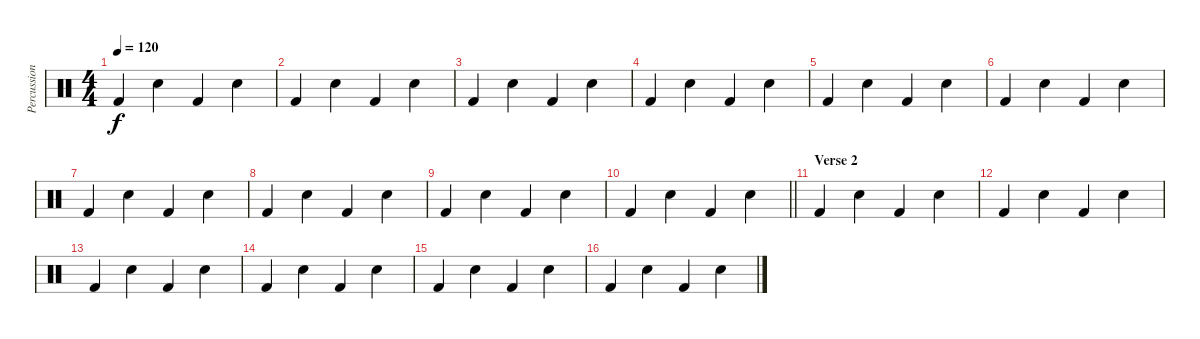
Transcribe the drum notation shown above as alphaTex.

\track ("Percussion" "Percussion") {instrument percussion}
\staff {score}
\articulation defaults
\ts (4 4)
\tempo 120
\clef neutral
\ks c "Kick (hit) 2".4{dy f} "Electric Snare (hit)".4 "Kick (hit) 2".4 "Electric Snare (hit)".4
|
"Kick (hit) 2".4 "Electric Snare (hit)".4 "Kick (hit) 2".4 "Electric Snare (hit)".4 |
"Kick (hit) 2".4 "Electric Snare (hit)".4 "Kick (hit) 2".4 "Electric Snare (hit)".4 |
"Kick (hit) 2".4 "Electric Snare (hit)".4 "Kick (hit) 2".4 "Electric Snare (hit)".4 |
"Kick (hit) 2".4 "Electric Snare (hit)".4 "Kick (hit) 2".4 "Electric Snare (hit)".4 |
"Kick (hit) 2".4 "Electric Snare (hit)".4 "Kick (hit) 2".4 "Electric Snare (hit)".4 |
"Kick (hit) 2".4 "Electric Snare (hit)".4 "Kick (hit) 2".4 "Electric Snare (hit)".4 |
"Kick (hit) 2".4 "Electric Snare (hit)".4 "Kick (hit) 2".4 "Electric Snare (hit)".4 |
"Kick (hit) 2".4 "Electric Snare (hit)".4 "Kick (hit) 2".4 "Electric Snare (hit)".4 |
\barLineRight lightlight "Kick (hit) 2".4 "Electric Snare (hit)".4 "Kick (hit) 2".4 "Electric Snare (hit)".4
|
\section ("" "Verse 2")
"Kick (hit) 2".4 "Electric Snare (hit)".4 "Kick (hit) 2".4 "Electric Snare (hit)".4 |
"Kick (hit) 2".4 "Electric Snare (hit)".4 "Kick (hit) 2".4 "Electric Snare (hit)".4 |
"Kick (hit) 2".4 "Electric Snare (hit)".4 "Kick (hit) 2".4 "Electric Snare (hit)".4 |
"Kick (hit) 2".4 "Electric Snare (hit)".4 "Kick (hit) 2".4 "Electric Snare (hit)".4 |
"Kick (hit) 2".4 "Electric Snare (hit)".4 "Kick (hit) 2".4 "Electric Snare (hit)".4 |
"Kick (hit) 2".4 "Electric Snare (hit)".4 "Kick (hit) 2".4 "Electric Snare (hit)".4
